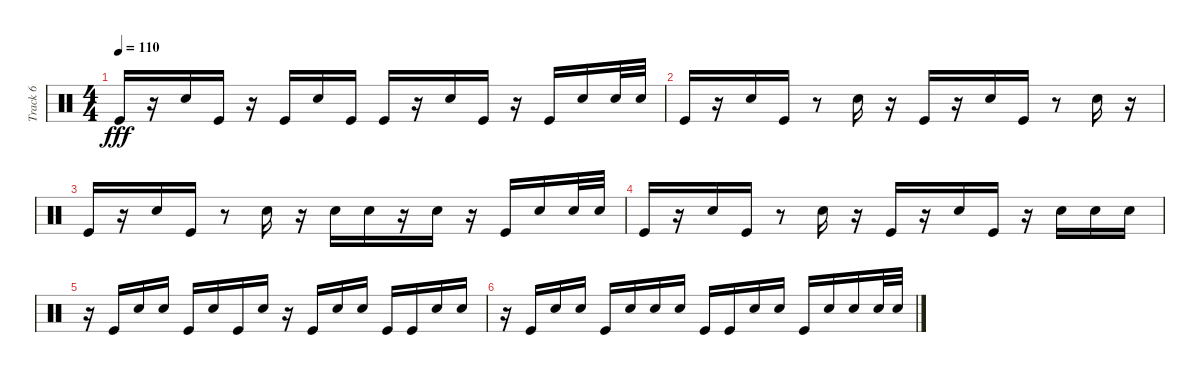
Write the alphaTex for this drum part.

\track ("Track 6" "Track 6") {instrument percussion}
\staff {score}
\articulation defaults
\ts (4 4)
\tempo 110
\clef neutral
\ks c "Kick (hit)".16{dy fff}
r.16 "Snare (hit) 2".16 "Kick (hit)".16 r.16 "Kick (hit)".16 "Snare (hit) 2".16 "Kick (hit)".16 "Kick (hit)".16 r.16 "Snare (hit) 2".16 "Kick (hit)".16 r.16 "Kick (hit)".16 "Snare (hit) 2".16 "Snare (hit) 2".32 "Snare (hit) 2".32 |
"Kick (hit)".16 r.16 "Snare (hit) 2".16 "Kick (hit)".16 r.8 "Snare (hit) 2".16 r.16 "Kick (hit)".16 r.16 "Snare (hit) 2".16 "Kick (hit)".16 r.8 "Snare (hit) 2".16 r.16 |
"Kick (hit)".16 r.16 "Snare (hit) 2".16 "Kick (hit)".16 r.8 "Snare (hit) 2".16 r.16 "Snare (hit) 2".16 "Snare (hit) 2".16 r.16 "Snare (hit) 2".16 r.16 "Kick (hit)".16 "Snare (hit) 2".16 "Snare (hit) 2".32 "Snare (hit) 2".32 |
"Kick (hit)".16 r.16 "Snare (hit) 2".16 "Kick (hit)".16 r.8 "Snare (hit) 2".16 r.16 "Kick (hit)".16 r.16 "Snare (hit) 2".16 "Kick (hit)".16 r.16 "Snare (hit) 2".16 "Snare (hit) 2".16 "Snare (hit) 2".16 |
r.16 "Kick (hit)".16 "Snare (hit) 2".16 "Snare (hit) 2".16 "Kick (hit)".16 "Snare (hit) 2".16 "Kick (hit)".16 "Snare (hit) 2".16 r.16 "Kick (hit)".16 "Snare (hit) 2".16 "Snare (hit) 2".16 "Kick (hit)".16 "Kick (hit)".16 "Snare (hit) 2".16 "Snare (hit) 2".16 |
r.16 "Kick (hit)".16 "Snare (hit) 2".16 "Snare (hit) 2".16 "Kick (hit)".16 "Snare (hit) 2".16 "Snare (hit) 2".16 "Snare (hit) 2".16 "Kick (hit)".16 "Kick (hit)".16 "Snare (hit) 2".16 "Snare (hit) 2".16 "Kick (hit)".16 "Snare (hit) 2".16 "Snare (hit) 2".16 "Snare (hit) 2".32 "Snare (hit) 2".32
